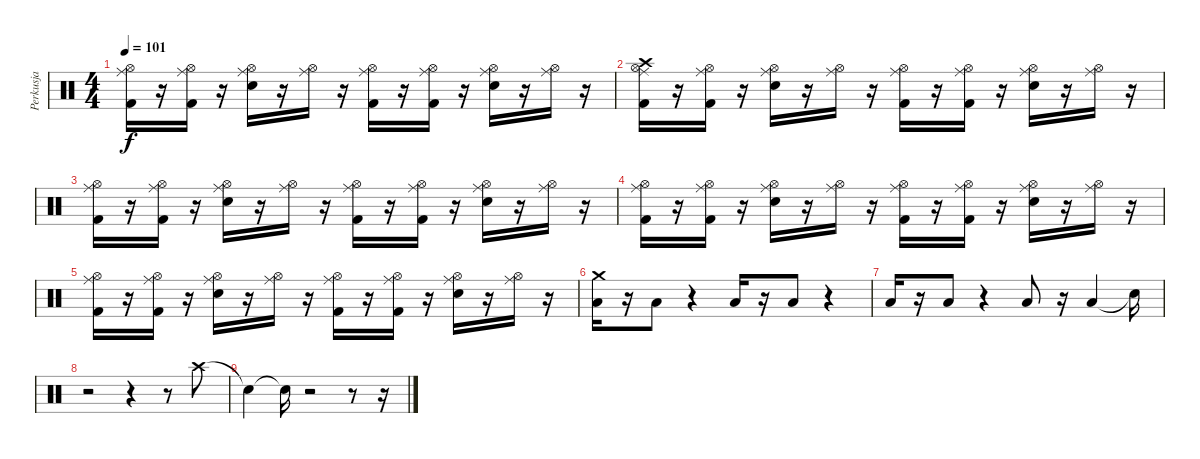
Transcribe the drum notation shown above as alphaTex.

\track ("Perkusja" "Perkusja") {instrument percussion}
\staff {score}
\articulation defaults
\ts (4 4)
\tempo 101
\clef neutral
\ks c
("Hi-Hat (open)" "Kick (hit) 2" "Ride (middle)").16{dy f} r.16 ("Kick (hit) 2" "Hi-Hat (open)" "Ride (middle)").16 r.16 ("Hi-Hat (open)" "Ride (middle)" "Snare (hit) 2").16 r.16 ("Hi-Hat (open)" "Ride (middle)").16 r.16 ("Ride (middle)" "Kick (hit) 2" "Hi-Hat (open)").16 r.16 ("Ride (middle)" "Hi-Hat (open)" "Kick (hit) 2").16 r.16 ("Ride (middle)" "Hi-Hat (open)" "Snare (hit) 2").16 r.16 ("Hi-Hat (open)" "Ride (middle)").16 r.16 |
("Hi-Hat (open)" "Ride (middle)" "Crash high (hit)" "Kick (hit) 2").16 r.16 ("Kick (hit) 2" "Ride (middle)" "Hi-Hat (open)").16 r.16 ("Hi-Hat (open)" "Ride (middle)" "Snare (hit) 2").16 r.16 ("Hi-Hat (open)" "Ride (middle)").16 r.16 ("Ride (middle)" "Hi-Hat (open)" "Kick (hit) 2").16 r.16 ("Hi-Hat (open)" "Ride (middle)" "Kick (hit) 2").16 r.16 ("Hi-Hat (open)" "Ride (middle)" "Snare (hit) 2").16 r.16 ("Ride (middle)" "Hi-Hat (open)").16 r.16 |
("Kick (hit) 2" "Hi-Hat (open)" "Ride (middle)").16 r.16 ("Kick (hit) 2" "Hi-Hat (open)" "Ride (middle)").16 r.16 ("Hi-Hat (open)" "Ride (middle)" "Snare (hit) 2").16 r.16 ("Ride (middle)" "Hi-Hat (open)").16 r.16 ("Ride (middle)" "Kick (hit) 2" "Hi-Hat (open)").16 r.16 ("Hi-Hat (open)" "Kick (hit) 2" "Ride (middle)").16 r.16 ("Hi-Hat (open)" "Snare (hit) 2" "Ride (middle)").16 r.16 ("Hi-Hat (open)" "Ride (middle)").16 r.16 |
("Kick (hit) 2" "Ride (middle)" "Hi-Hat (open)").16 r.16 ("Hi-Hat (open)" "Kick (hit) 2" "Ride (middle)").16 r.16 ("Ride (middle)" "Hi-Hat (open)" "Snare (hit) 2").16 r.16 ("Hi-Hat (open)" "Ride (middle)").16 r.16 ("Ride (middle)" "Kick (hit) 2" "Hi-Hat (open)").16 r.16 ("Hi-Hat (open)" "Kick (hit) 2" "Ride (middle)").16 r.16 ("Ride (middle)" "Snare (hit) 2" "Hi-Hat (open)").16 r.16 ("Ride (middle)" "Hi-Hat (open)").16 r.16 |
("Kick (hit) 2" "Ride (middle)" "Hi-Hat (open)").16 r.16 ("Kick (hit) 2" "Ride (middle)" "Hi-Hat (open)").16 r.16 ("Hi-Hat (open)" "Snare (hit) 2" "Ride (middle)").16 r.16 ("Hi-Hat (open)" "Ride (middle)").16 r.16 ("Ride (middle)" "Kick (hit) 2" "Hi-Hat (open)").16 r.16 ("Hi-Hat (open)" "Ride (middle)" "Kick (hit) 2").16 r.16 ("Ride (middle)" "Hi-Hat (open)" "Snare (hit) 2").16 r.16 ("Ride (middle)" "Hi-Hat (open)").16 r.16 |
("Crash medium (hit)" "Low Floor Tom (hit)").16 r.16 "Low Floor Tom (hit)".8 r.4 "Low Floor Tom (hit)".16 r.16 "Low Floor Tom (hit)".8 r.4 |
"Low Floor Tom (hit)".16 r.16 "Low Floor Tom (hit)".8 r.4 "Low Floor Tom (hit)".8 r.16 "Low Floor Tom (hit)".4 "Snare (hit)"{t}.16 |
r.2 r.4 r.8 "Crash high (hit)".8 |
"Snare (hit)"{t}.4 "Snare (hit)"{t}.16 r.2 r.8 r.16
